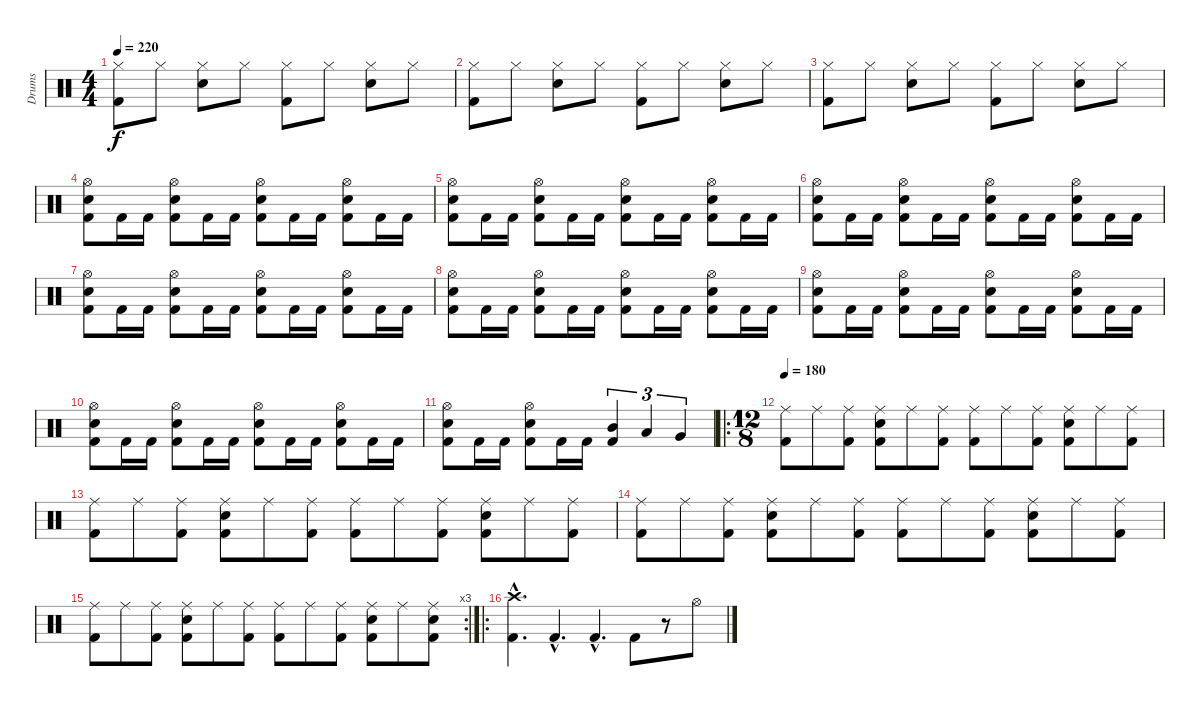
\track ("Drums" "Drums") {instrument percussion}
\staff {score}
\articulation defaults
\ts (4 4)
\tempo 220
\clef neutral
\ks c
("Hi-Hat (closed)" "Kick (hit) 2").8{dy f} "Hi-Hat (closed)".8 ("Hi-Hat (closed)" "Snare (hit) 2").8 "Hi-Hat (closed)".8 ("Hi-Hat (closed)" "Kick (hit) 2").8 "Hi-Hat (closed)".8 ("Hi-Hat (closed)" "Snare (hit) 2").8 "Hi-Hat (closed)".8 |
("Hi-Hat (closed)" "Kick (hit) 2").8 "Hi-Hat (closed)".8 ("Hi-Hat (closed)" "Snare (hit) 2").8 "Hi-Hat (closed)".8 ("Hi-Hat (closed)" "Kick (hit) 2").8 "Hi-Hat (closed)".8 ("Hi-Hat (closed)" "Snare (hit) 2").8 "Hi-Hat (closed)".8 |
("Hi-Hat (closed)" "Kick (hit) 2").8 "Hi-Hat (closed)".8 ("Hi-Hat (closed)" "Snare (hit) 2").8 "Hi-Hat (closed)".8 ("Hi-Hat (closed)" "Kick (hit) 2").8 "Hi-Hat (closed)".8 ("Hi-Hat (closed)" "Snare (hit) 2").8 "Hi-Hat (closed)".8 |
("Hi-Hat (open)" "Snare (hit) 2" "Kick (hit) 2").8 "Kick (hit) 2".16 "Kick (hit) 2".16 ("Hi-Hat (open)" "Snare (hit) 2" "Kick (hit) 2").8 "Kick (hit) 2".16 "Kick (hit) 2".16 ("Hi-Hat (open)" "Snare (hit) 2" "Kick (hit) 2").8 "Kick (hit) 2".16 "Kick (hit) 2".16 ("Hi-Hat (open)" "Snare (hit) 2" "Kick (hit) 2").8 "Kick (hit) 2".16 "Kick (hit) 2".16 |
("Hi-Hat (open)" "Snare (hit) 2" "Kick (hit) 2").8 "Kick (hit) 2".16 "Kick (hit) 2".16 ("Hi-Hat (open)" "Snare (hit) 2" "Kick (hit) 2").8 "Kick (hit) 2".16 "Kick (hit) 2".16 ("Hi-Hat (open)" "Snare (hit) 2" "Kick (hit) 2").8 "Kick (hit) 2".16 "Kick (hit) 2".16 ("Hi-Hat (open)" "Snare (hit) 2" "Kick (hit) 2").8 "Kick (hit) 2".16 "Kick (hit) 2".16 |
("Hi-Hat (open)" "Snare (hit) 2" "Kick (hit) 2").8 "Kick (hit) 2".16 "Kick (hit) 2".16 ("Hi-Hat (open)" "Snare (hit) 2" "Kick (hit) 2").8 "Kick (hit) 2".16 "Kick (hit) 2".16 ("Hi-Hat (open)" "Snare (hit) 2" "Kick (hit) 2").8 "Kick (hit) 2".16 "Kick (hit) 2".16 ("Hi-Hat (open)" "Snare (hit) 2" "Kick (hit) 2").8 "Kick (hit) 2".16 "Kick (hit) 2".16 |
("Hi-Hat (open)" "Snare (hit) 2" "Kick (hit) 2").8 "Kick (hit) 2".16 "Kick (hit) 2".16 ("Hi-Hat (open)" "Snare (hit) 2" "Kick (hit) 2").8 "Kick (hit) 2".16 "Kick (hit) 2".16 ("Hi-Hat (open)" "Snare (hit) 2" "Kick (hit) 2").8 "Kick (hit) 2".16 "Kick (hit) 2".16 ("Hi-Hat (open)" "Snare (hit) 2" "Kick (hit) 2").8 "Kick (hit) 2".16 "Kick (hit) 2".16 |
("Hi-Hat (open)" "Snare (hit) 2" "Kick (hit) 2").8 "Kick (hit) 2".16 "Kick (hit) 2".16 ("Hi-Hat (open)" "Snare (hit) 2" "Kick (hit) 2").8 "Kick (hit) 2".16 "Kick (hit) 2".16 ("Hi-Hat (open)" "Snare (hit) 2" "Kick (hit) 2").8 "Kick (hit) 2".16 "Kick (hit) 2".16 ("Hi-Hat (open)" "Snare (hit) 2" "Kick (hit) 2").8 "Kick (hit) 2".16 "Kick (hit) 2".16 |
("Hi-Hat (open)" "Snare (hit) 2" "Kick (hit) 2").8 "Kick (hit) 2".16 "Kick (hit) 2".16 ("Hi-Hat (open)" "Snare (hit) 2" "Kick (hit) 2").8 "Kick (hit) 2".16 "Kick (hit) 2".16 ("Hi-Hat (open)" "Snare (hit) 2" "Kick (hit) 2").8 "Kick (hit) 2".16 "Kick (hit) 2".16 ("Hi-Hat (open)" "Snare (hit) 2" "Kick (hit) 2").8 "Kick (hit) 2".16 "Kick (hit) 2".16 |
("Hi-Hat (open)" "Snare (hit) 2" "Kick (hit) 2").8 "Kick (hit) 2".16 "Kick (hit) 2".16 ("Hi-Hat (open)" "Snare (hit) 2" "Kick (hit) 2").8 "Kick (hit) 2".16 "Kick (hit) 2".16 ("Hi-Hat (open)" "Snare (hit) 2" "Kick (hit) 2").8 "Kick (hit) 2".16 "Kick (hit) 2".16 ("Hi-Hat (open)" "Snare (hit) 2" "Kick (hit) 2").8 "Kick (hit) 2".16 "Kick (hit) 2".16 |
("Hi-Hat (open)" "Snare (hit) 2" "Kick (hit) 2").8 "Kick (hit) 2".16 "Kick (hit) 2".16 ("Hi-Hat (open)" "Snare (hit) 2" "Kick (hit) 2").8 "Kick (hit) 2".16 "Kick (hit) 2".16 ("Mid Tom (hit)" "Kick (hit) 2").4{tu (3 2)} "Low Tom (hit)".4{tu (3 2)} "Very Low Tom (hit)".4{tu (3 2)} |
\ro
\ts (12 8)
\tempo 180
("Ride (middle)" "Kick (hit) 2").8 "Ride (middle)".8 ("Ride (middle)" "Kick (hit) 2").8 ("Ride (middle)" "Snare (hit) 2" "Kick (hit) 2").8 "Ride (middle)".8 ("Ride (middle)" "Kick (hit) 2").8 ("Ride (middle)" "Kick (hit) 2").8 "Ride (middle)".8 ("Ride (middle)" "Kick (hit) 2").8 ("Ride (middle)" "Snare (hit) 2" "Kick (hit) 2").8 "Ride (middle)".8 ("Ride (middle)" "Kick (hit) 2").8 |
("Ride (middle)" "Kick (hit) 2").8 "Ride (middle)".8 ("Ride (middle)" "Kick (hit) 2").8 ("Ride (middle)" "Snare (hit) 2" "Kick (hit) 2").8 "Ride (middle)".8 ("Ride (middle)" "Kick (hit) 2").8 ("Ride (middle)" "Kick (hit) 2").8 "Ride (middle)".8 ("Ride (middle)" "Kick (hit) 2").8 ("Ride (middle)" "Snare (hit) 2" "Kick (hit) 2").8 "Ride (middle)".8 ("Ride (middle)" "Kick (hit) 2").8 |
("Ride (middle)" "Kick (hit) 2").8 "Ride (middle)".8 ("Ride (middle)" "Kick (hit) 2").8 ("Ride (middle)" "Snare (hit) 2" "Kick (hit) 2").8 "Ride (middle)".8 ("Ride (middle)" "Kick (hit) 2").8 ("Ride (middle)" "Kick (hit) 2").8 "Ride (middle)".8 ("Ride (middle)" "Kick (hit) 2").8 ("Ride (middle)" "Snare (hit) 2" "Kick (hit) 2").8 "Ride (middle)".8 ("Ride (middle)" "Kick (hit) 2").8 |
\rc 3
("Ride (middle)" "Kick (hit) 2").8 "Ride (middle)".8 ("Ride (middle)" "Kick (hit) 2").8 ("Ride (middle)" "Snare (hit) 2" "Kick (hit) 2").8 "Ride (middle)".8 ("Ride (middle)" "Kick (hit) 2").8 ("Ride (middle)" "Kick (hit) 2").8 "Ride (middle)".8 ("Ride (middle)" "Kick (hit) 2").8 ("Ride (middle)" "Snare (hit) 2" "Kick (hit) 2").8 "Ride (middle)".8 ("Ride (middle)" "Snare (hit) 2" "Kick (hit) 2").8 |
\ro
("Crash high (hit)"{hac} "Kick (hit) 2"{hac}).4{d} "Kick (hit) 2"{hac}.4{d} "Kick (hit) 2"{hac}.4{d} "Kick (hit) 2".8 r.8 "Hi-Hat (open)".8
